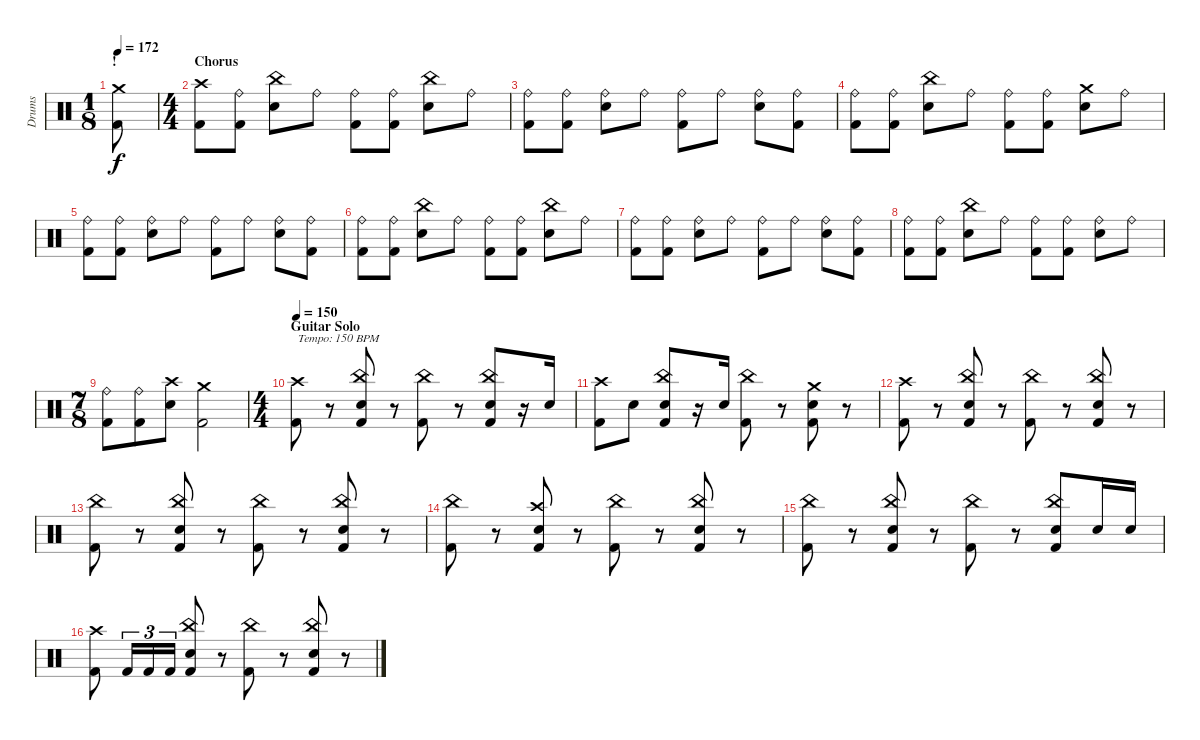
\track ("Drums" "Drums") {instrument percussion}
\staff {score}
\articulation defaults
\ts (1 8)
\section ("" "!")
\tempo 172
\clef neutral
\ks c
("Crash medium (hit)" "Kick (hit) 2").8{dy f} |
\ts (4 4)
\section ("" "Chorus")
("Crash high (hit)" "Kick (hit) 2").8 ("Ride (bell)" "Kick (hit) 2").8 ("China (hit)" "Electric Snare (hit)").8 "Ride (bell)".8 ("Ride (bell)" "Kick (hit) 2").8 ("Ride (bell)" "Kick (hit) 2").8 ("China (hit)" "Electric Snare (hit)").8 "Ride (bell)".8 |
("Ride (bell)" "Kick (hit) 2").8 ("Ride (bell)" "Kick (hit) 2").8 ("Ride (bell)" "Electric Snare (hit)").8 "Ride (bell)".8 ("Ride (bell)" "Kick (hit) 2").8 "Ride (bell)".8 ("Ride (bell)" "Electric Snare (hit)").8 ("Ride (bell)" "Kick (hit) 2").8 |
("Ride (bell)" "Kick (hit) 2").8 ("Ride (bell)" "Kick (hit) 2").8 ("China (hit)" "Electric Snare (hit)").8 "Ride (bell)".8 ("Ride (bell)" "Kick (hit) 2").8 ("Ride (bell)" "Kick (hit) 2").8 ("Crash medium (hit)" "Electric Snare (hit)").8 "Ride (bell)".8 |
("Ride (bell)" "Kick (hit) 2").8 ("Ride (bell)" "Kick (hit) 2").8 ("Ride (bell)" "Electric Snare (hit)").8 "Ride (bell)".8 ("Ride (bell)" "Kick (hit) 2").8 "Ride (bell)".8 ("Ride (bell)" "Electric Snare (hit)").8 ("Ride (bell)" "Kick (hit) 2").8 |
("Ride (bell)" "Kick (hit) 2").8 ("Ride (bell)" "Kick (hit) 2").8 ("China (hit)" "Electric Snare (hit)").8 "Ride (bell)".8 ("Ride (bell)" "Kick (hit) 2").8 ("Ride (bell)" "Kick (hit) 2").8 ("China (hit)" "Electric Snare (hit)").8 "Ride (bell)".8 |
("Ride (bell)" "Kick (hit) 2").8 ("Ride (bell)" "Kick (hit) 2").8 ("Ride (bell)" "Electric Snare (hit)").8 "Ride (bell)".8 ("Ride (bell)" "Kick (hit) 2").8 "Ride (bell)".8 ("Ride (bell)" "Electric Snare (hit)").8 ("Ride (bell)" "Kick (hit) 2").8 |
("Ride (bell)" "Kick (hit) 2").8 ("Ride (bell)" "Kick (hit) 2").8 ("China (hit)" "Electric Snare (hit)").8 "Ride (bell)".8 ("Ride (bell)" "Kick (hit) 2").8 ("Ride (bell)" "Kick (hit) 2").8 ("Ride (bell)" "Electric Snare (hit)").8 "Ride (bell)".8 |
\ts (7 8)
("Ride (bell)" "Kick (hit) 2").8 ("Ride (bell)" "Kick (hit) 2").8 ("Crash high (hit)" "Electric Snare (hit)").8 ("Crash medium (hit)" "Kick (hit) 2").2 |
\ts (4 4)
\section ("" "Guitar Solo")
\tempo 150
("Crash high (hit)" "Kick (hit) 2").8{txt "Tempo: 150 BPM"} r.8 ("China (hit)" "Electric Snare (hit)" "Kick (hit) 2").8 r.8 ("China (hit)" "Kick (hit) 2").8 r.8 ("China (hit)" "Electric Snare (hit)" "Kick (hit) 2").8 r.16 "Electric Snare (hit)".16 |
("Crash high (hit)" "Kick (hit) 2").8 "Electric Snare (hit)".8 ("China (hit)" "Electric Snare (hit)" "Kick (hit) 2").8 r.16 "Electric Snare (hit)".16 ("China (hit)" "Kick (hit) 2").8 r.8 ("Crash medium (hit)" "Electric Snare (hit)" "Kick (hit) 2").8 r.8 |
("Crash high (hit)" "Kick (hit) 2").8 r.8 ("China (hit)" "Electric Snare (hit)" "Kick (hit) 2").8 r.8 ("China (hit)" "Kick (hit) 2").8 r.8 ("China (hit)" "Electric Snare (hit)" "Kick (hit) 2").8 r.8 |
("China (hit)" "Kick (hit) 2").8 r.8 ("China (hit)" "Electric Snare (hit)" "Kick (hit) 2").8 r.8 ("China (hit)" "Kick (hit) 2").8 r.8 ("China (hit)" "Electric Snare (hit)" "Kick (hit) 2").8 r.8 |
("China (hit)" "Kick (hit) 2").8 r.8 ("Crash high (hit)" "Electric Snare (hit)" "Kick (hit) 2").8 r.8 ("China (hit)" "Kick (hit) 2").8 r.8 ("China (hit)" "Electric Snare (hit)" "Kick (hit) 2").8 r.8 |
("China (hit)" "Kick (hit) 2").8 r.8 ("China (hit)" "Electric Snare (hit)" "Kick (hit) 2").8 r.8 ("China (hit)" "Kick (hit) 2").8 r.8 ("China (hit)" "Electric Snare (hit)" "Kick (hit) 2").8 "Electric Snare (hit)".16 "Electric Snare (hit)".16 |
("Crash high (hit)" "Kick (hit) 2").8 "Kick (hit) 2".16{tu (3 2)} "Kick (hit) 2".16{tu (3 2)} "Kick (hit) 2".16{tu (3 2)} ("China (hit)" "Electric Snare (hit)" "Kick (hit) 2").8 r.8 ("China (hit)" "Kick (hit) 2").8 r.8 ("China (hit)" "Electric Snare (hit)" "Kick (hit) 2").8 r.8
